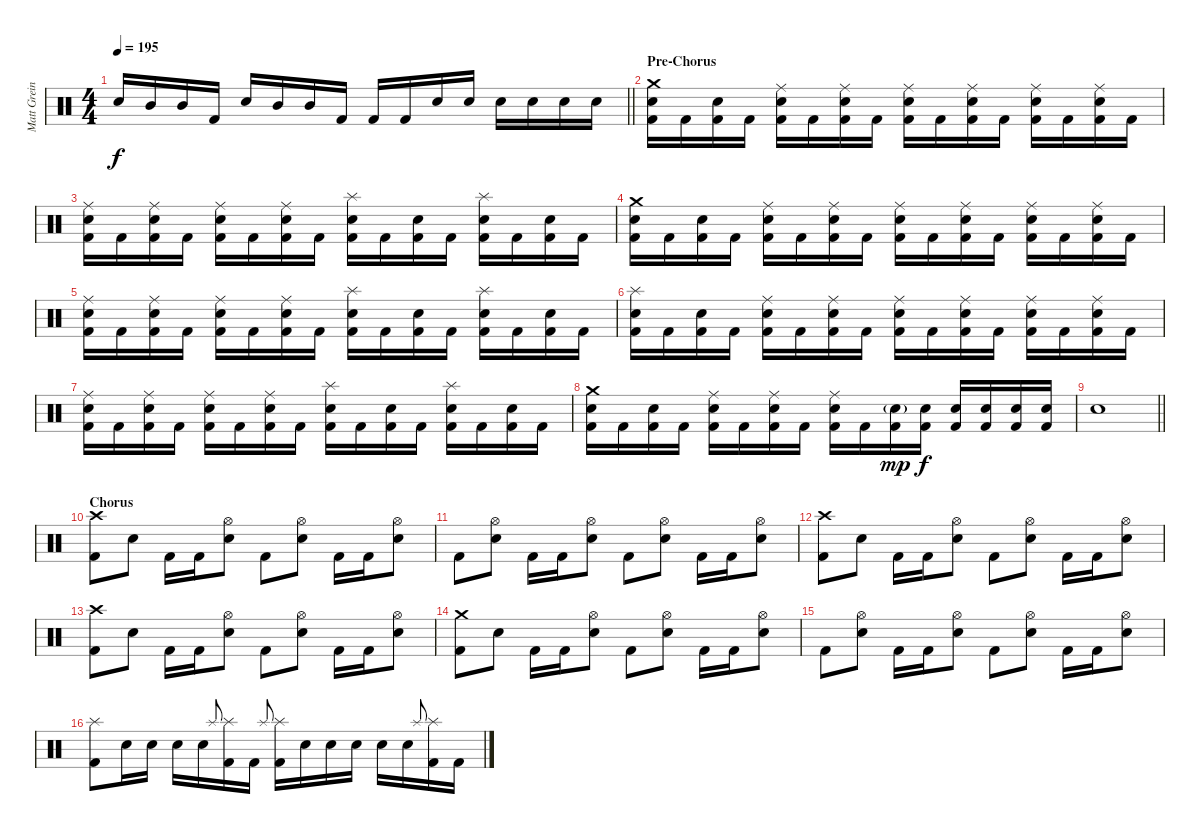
\track ("Matt Greiner" "Matt Grein") {instrument percussion}
\staff {score}
\articulation defaults
\ts (4 4)
\tempo 195
\clef neutral
\barLineRight lightlight
\ks c "Electric Snare (hit)".16{dy f} "Mid Tom (hit)".16 "Mid Tom (hit)".16 "Kick (hit) 2".16 "Electric Snare (hit)".16 "Mid Tom (hit)".16 "Mid Tom (hit)".16 "Kick (hit) 2".16 "Kick (hit) 2".16 "Kick (hit) 2".16 "Electric Snare (hit)".16 "Electric Snare (hit)".16 "Electric Snare (hit)".16 "Electric Snare (hit)".16 "Electric Snare (hit)".16 "Electric Snare (hit)".16
|
\section ("" "Pre-Chorus")
("Crash medium (hit)" "Electric Snare (hit)" "Kick (hit) 2").16 "Kick (hit) 2".16 ("Electric Snare (hit)" "Kick (hit) 2").16 "Kick (hit) 2".16 ("Ride (middle)" "Electric Snare (hit)" "Kick (hit) 2").16 "Kick (hit) 2".16 ("Ride (middle)" "Electric Snare (hit)" "Kick (hit) 2").16 "Kick (hit) 2".16 ("Ride (middle)" "Electric Snare (hit)" "Kick (hit) 2").16 "Kick (hit) 2".16 ("Ride (middle)" "Electric Snare (hit)" "Kick (hit) 2").16 "Kick (hit) 2".16 ("Ride (middle)" "Electric Snare (hit)" "Kick (hit) 2").16 "Kick (hit) 2".16 ("Ride (middle)" "Electric Snare (hit)" "Kick (hit) 2").16 "Kick (hit) 2".16 |
("Ride (middle)" "Electric Snare (hit)" "Kick (hit) 2").16 "Kick (hit) 2".16 ("Ride (middle)" "Electric Snare (hit)" "Kick (hit) 2").16 "Kick (hit) 2".16 ("Ride (middle)" "Electric Snare (hit)" "Kick (hit) 2").16 "Kick (hit) 2".16 ("Ride (middle)" "Electric Snare (hit)" "Kick (hit) 2").16 "Kick (hit) 2".16 ("Splash (hit)" "Electric Snare (hit)" "Kick (hit) 2").16 "Kick (hit) 2".16 ("Electric Snare (hit)" "Kick (hit) 2").16 "Kick (hit) 2".16 ("Splash (hit)" "Electric Snare (hit)" "Kick (hit) 2").16 "Kick (hit) 2".16 ("Electric Snare (hit)" "Kick (hit) 2").16 "Kick (hit) 2".16 |
("Crash medium (hit)" "Electric Snare (hit)" "Kick (hit) 2").16 "Kick (hit) 2".16 ("Electric Snare (hit)" "Kick (hit) 2").16 "Kick (hit) 2".16 ("Ride (middle)" "Electric Snare (hit)" "Kick (hit) 2").16 "Kick (hit) 2".16 ("Ride (middle)" "Electric Snare (hit)" "Kick (hit) 2").16 "Kick (hit) 2".16 ("Ride (middle)" "Electric Snare (hit)" "Kick (hit) 2").16 "Kick (hit) 2".16 ("Ride (middle)" "Electric Snare (hit)" "Kick (hit) 2").16 "Kick (hit) 2".16 ("Ride (middle)" "Electric Snare (hit)" "Kick (hit) 2").16 "Kick (hit) 2".16 ("Ride (middle)" "Electric Snare (hit)" "Kick (hit) 2").16 "Kick (hit) 2".16 |
("Ride (middle)" "Electric Snare (hit)" "Kick (hit) 2").16 "Kick (hit) 2".16 ("Ride (middle)" "Electric Snare (hit)" "Kick (hit) 2").16 "Kick (hit) 2".16 ("Ride (middle)" "Electric Snare (hit)" "Kick (hit) 2").16 "Kick (hit) 2".16 ("Ride (middle)" "Electric Snare (hit)" "Kick (hit) 2").16 "Kick (hit) 2".16 ("Splash (hit)" "Electric Snare (hit)" "Kick (hit) 2").16 "Kick (hit) 2".16 ("Electric Snare (hit)" "Kick (hit) 2").16 "Kick (hit) 2".16 ("Splash (hit)" "Electric Snare (hit)" "Kick (hit) 2").16 "Kick (hit) 2".16 ("Electric Snare (hit)" "Kick (hit) 2").16 "Kick (hit) 2".16 |
("Splash (hit)" "Electric Snare (hit)" "Kick (hit) 2").16 "Kick (hit) 2".16 ("Electric Snare (hit)" "Kick (hit) 2").16 "Kick (hit) 2".16 ("Ride (middle)" "Electric Snare (hit)" "Kick (hit) 2").16 "Kick (hit) 2".16 ("Ride (middle)" "Electric Snare (hit)" "Kick (hit) 2").16 "Kick (hit) 2".16 ("Ride (middle)" "Electric Snare (hit)" "Kick (hit) 2").16 "Kick (hit) 2".16 ("Ride (middle)" "Electric Snare (hit)" "Kick (hit) 2").16 "Kick (hit) 2".16 ("Ride (middle)" "Electric Snare (hit)" "Kick (hit) 2").16 "Kick (hit) 2".16 ("Ride (middle)" "Electric Snare (hit)" "Kick (hit) 2").16 "Kick (hit) 2".16 |
("Ride (middle)" "Electric Snare (hit)" "Kick (hit) 2").16 "Kick (hit) 2".16 ("Ride (middle)" "Electric Snare (hit)" "Kick (hit) 2").16 "Kick (hit) 2".16 ("Ride (middle)" "Electric Snare (hit)" "Kick (hit) 2").16 "Kick (hit) 2".16 ("Ride (middle)" "Electric Snare (hit)" "Kick (hit) 2").16 "Kick (hit) 2".16 ("Splash (hit)" "Electric Snare (hit)" "Kick (hit) 2").16 "Kick (hit) 2".16 ("Electric Snare (hit)" "Kick (hit) 2").16 "Kick (hit) 2".16 ("Splash (hit)" "Electric Snare (hit)" "Kick (hit) 2").16 "Kick (hit) 2".16 ("Electric Snare (hit)" "Kick (hit) 2").16 "Kick (hit) 2".16 |
("Crash medium (hit)" "Electric Snare (hit)" "Kick (hit) 2").16 "Kick (hit) 2".16 ("Electric Snare (hit)" "Kick (hit) 2").16 "Kick (hit) 2".16 ("Ride (middle)" "Electric Snare (hit)" "Kick (hit) 2").16 "Kick (hit) 2".16 ("Ride (middle)" "Electric Snare (hit)" "Kick (hit) 2").16 "Kick (hit) 2".16 ("Ride (middle)" "Electric Snare (hit)" "Kick (hit) 2").16 "Kick (hit) 2".16 ("Electric Snare (hit)"{g} "Kick (hit) 2").16{dy mp} ("Electric Snare (hit)" "Kick (hit) 2").16{dy f} ("Electric Snare (hit)" "Kick (hit) 2").16 ("Electric Snare (hit)" "Kick (hit) 2").16 ("Electric Snare (hit)" "Kick (hit) 2").16 ("Electric Snare (hit)" "Kick (hit) 2").16 |
\barLineRight lightlight "Electric Snare (hit)".1
|
\section ("" "Chorus")
("Crash high (hit)" "Kick (hit) 2").8 "Electric Snare (hit)".8 "Kick (hit) 2".16 "Kick (hit) 2".16 ("Hi-Hat (open)" "Electric Snare (hit)").8 "Kick (hit) 2".8 ("Hi-Hat (open)" "Electric Snare (hit)").8 "Kick (hit) 2".16 "Kick (hit) 2".16 ("Hi-Hat (open)" "Electric Snare (hit)").8 |
"Kick (hit) 2".8 ("Hi-Hat (open)" "Electric Snare (hit)").8 "Kick (hit) 2".16 "Kick (hit) 2".16 ("Hi-Hat (open)" "Electric Snare (hit)").8 "Kick (hit) 2".8 ("Hi-Hat (open)" "Electric Snare (hit)").8 "Kick (hit) 2".16 "Kick (hit) 2".16 ("Hi-Hat (open)" "Electric Snare (hit)").8 |
("Crash high (hit)" "Kick (hit) 2").8 "Electric Snare (hit)".8 "Kick (hit) 2".16 "Kick (hit) 2".16 ("Hi-Hat (open)" "Electric Snare (hit)").8 "Kick (hit) 2".8 ("Hi-Hat (open)" "Electric Snare (hit)").8 "Kick (hit) 2".16 "Kick (hit) 2".16 ("Hi-Hat (open)" "Electric Snare (hit)").8 |
("Crash high (hit)" "Kick (hit) 2").8 "Electric Snare (hit)".8 "Kick (hit) 2".16 "Kick (hit) 2".16 ("Hi-Hat (open)" "Electric Snare (hit)").8 "Kick (hit) 2".8 ("Hi-Hat (open)" "Electric Snare (hit)").8 "Kick (hit) 2".16 "Kick (hit) 2".16 ("Hi-Hat (open)" "Electric Snare (hit)").8 |
("Crash medium (hit)" "Kick (hit) 2").8 "Electric Snare (hit)".8 "Kick (hit) 2".16 "Kick (hit) 2".16 ("Hi-Hat (open)" "Electric Snare (hit)").8 "Kick (hit) 2".8 ("Hi-Hat (open)" "Electric Snare (hit)").8 "Kick (hit) 2".16 "Kick (hit) 2".16 ("Hi-Hat (open)" "Electric Snare (hit)").8 |
"Kick (hit) 2".8 ("Hi-Hat (open)" "Electric Snare (hit)").8 "Kick (hit) 2".16 "Kick (hit) 2".16 ("Hi-Hat (open)" "Electric Snare (hit)").8 "Kick (hit) 2".8 ("Hi-Hat (open)" "Electric Snare (hit)").8 "Kick (hit) 2".16 "Kick (hit) 2".16 ("Hi-Hat (open)" "Electric Snare (hit)").8 |
("Splash (hit)" "Kick (hit) 2").8 "Electric Snare (hit)".16 "Electric Snare (hit)".16 "Electric Snare (hit)".16 "Electric Snare (hit)".16 "Splash (hit)".8{gr onbeat} ("Splash (hit)" "Kick (hit) 2").16 "Kick (hit) 2".16 "Splash (hit)".8{gr onbeat} ("Splash (hit)" "Kick (hit) 2").16 "Electric Snare (hit)".16 "Electric Snare (hit)".16 "Electric Snare (hit)".16 "Electric Snare (hit)".16 "Electric Snare (hit)".16 "Splash (hit)".8{gr onbeat} ("Splash (hit)" "Kick (hit) 2").16 "Kick (hit) 2".16
